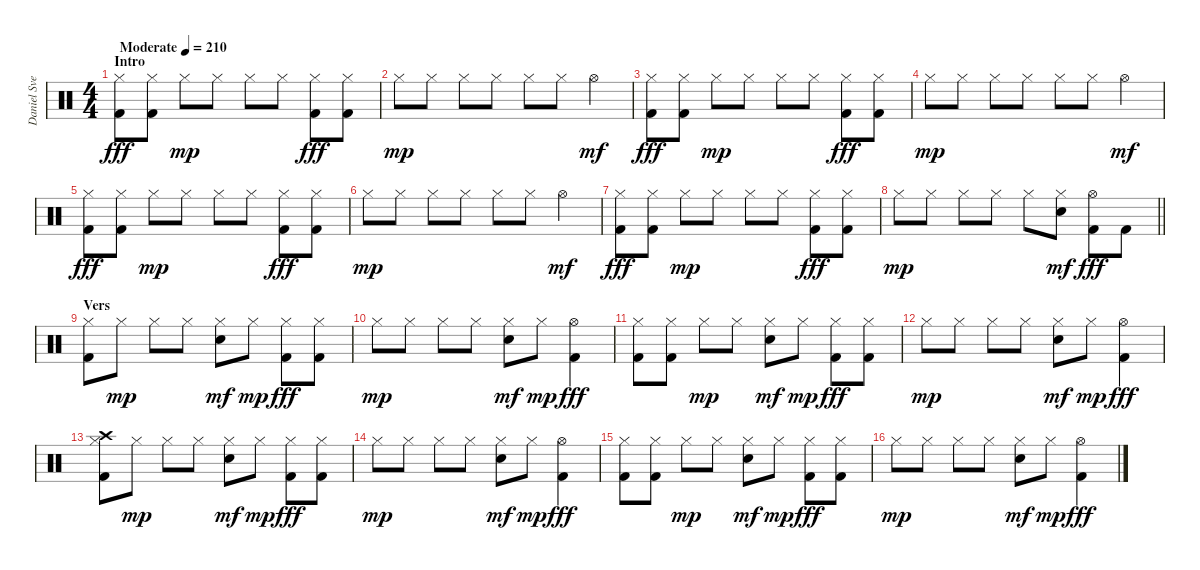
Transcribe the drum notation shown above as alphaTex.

\track ("Daniel Svensson" "Daniel Sve") {instrument percussion}
\staff {score}
\articulation defaults
\ts (4 4)
\section ("" "Intro")
\tempo (210 "Moderate")
\clef neutral
\ks c
("Hi-Hat (closed)" "Kick (hit) 2").8{dy fff} ("Hi-Hat (closed)" "Kick (hit) 2").8 "Hi-Hat (closed)".8{dy mp} "Hi-Hat (closed)".8 "Hi-Hat (closed)".8 "Hi-Hat (closed)".8 ("Hi-Hat (closed)" "Kick (hit) 2").8{dy fff} ("Hi-Hat (closed)" "Kick (hit) 2").8 |
"Hi-Hat (closed)".8{dy mp} "Hi-Hat (closed)".8 "Hi-Hat (closed)".8 "Hi-Hat (closed)".8 "Hi-Hat (closed)".8 "Hi-Hat (closed)".8 "Hi-Hat (open)".4{dy mf} |
("Hi-Hat (closed)" "Kick (hit) 2").8{dy fff} ("Hi-Hat (closed)" "Kick (hit) 2").8 "Hi-Hat (closed)".8{dy mp} "Hi-Hat (closed)".8 "Hi-Hat (closed)".8 "Hi-Hat (closed)".8 ("Hi-Hat (closed)" "Kick (hit) 2").8{dy fff} ("Hi-Hat (closed)" "Kick (hit) 2").8 |
"Hi-Hat (closed)".8{dy mp} "Hi-Hat (closed)".8 "Hi-Hat (closed)".8 "Hi-Hat (closed)".8 "Hi-Hat (closed)".8 "Hi-Hat (closed)".8 "Hi-Hat (open)".4{dy mf} |
("Hi-Hat (closed)" "Kick (hit) 2").8{dy fff} ("Hi-Hat (closed)" "Kick (hit) 2").8 "Hi-Hat (closed)".8{dy mp} "Hi-Hat (closed)".8 "Hi-Hat (closed)".8 "Hi-Hat (closed)".8 ("Hi-Hat (closed)" "Kick (hit) 2").8{dy fff} ("Hi-Hat (closed)" "Kick (hit) 2").8 |
"Hi-Hat (closed)".8{dy mp} "Hi-Hat (closed)".8 "Hi-Hat (closed)".8 "Hi-Hat (closed)".8 "Hi-Hat (closed)".8 "Hi-Hat (closed)".8 "Hi-Hat (open)".4{dy mf} |
("Hi-Hat (closed)" "Kick (hit) 2").8{dy fff} ("Hi-Hat (closed)" "Kick (hit) 2").8 "Hi-Hat (closed)".8{dy mp} "Hi-Hat (closed)".8 "Hi-Hat (closed)".8 "Hi-Hat (closed)".8 ("Hi-Hat (closed)" "Kick (hit) 2").8{dy fff} ("Hi-Hat (closed)" "Kick (hit) 2").8 |
\barLineRight lightlight "Hi-Hat (closed)".8{dy mp} "Hi-Hat (closed)".8 "Hi-Hat (closed)".8 "Hi-Hat (closed)".8 "Hi-Hat (closed)".8
("Hi-Hat (closed)" "Electric Snare (hit)").8{dy mf} ("Hi-Hat (open)" "Kick (hit) 2").8{dy fff} "Kick (hit) 2".8 |
\section ("" "Vers")
("Hi-Hat (closed)" "Kick (hit) 2").8 "Hi-Hat (closed)".8{dy mp} "Hi-Hat (closed)".8 "Hi-Hat (closed)".8 ("Hi-Hat (closed)" "Electric Snare (hit)").8{dy mf} "Hi-Hat (closed)".8{dy mp} ("Hi-Hat (closed)" "Kick (hit) 2").8{dy fff} ("Hi-Hat (closed)" "Kick (hit) 2").8 |
"Hi-Hat (closed)".8{dy mp} "Hi-Hat (closed)".8 "Hi-Hat (closed)".8 "Hi-Hat (closed)".8 ("Hi-Hat (closed)" "Electric Snare (hit)").8{dy mf} "Hi-Hat (closed)".8{dy mp} ("Hi-Hat (open)" "Kick (hit) 2").4{dy fff} |
("Hi-Hat (closed)" "Kick (hit) 2").8 ("Hi-Hat (closed)" "Kick (hit) 2").8 "Hi-Hat (closed)".8{dy mp} "Hi-Hat (closed)".8 ("Hi-Hat (closed)" "Electric Snare (hit)").8{dy mf} "Hi-Hat (closed)".8{dy mp} ("Hi-Hat (closed)" "Kick (hit) 2").8{dy fff} ("Hi-Hat (closed)" "Kick (hit) 2").8 |
"Hi-Hat (closed)".8{dy mp} "Hi-Hat (closed)".8 "Hi-Hat (closed)".8 "Hi-Hat (closed)".8 ("Hi-Hat (closed)" "Electric Snare (hit)").8{dy mf} "Hi-Hat (closed)".8{dy mp} ("Hi-Hat (open)" "Kick (hit) 2").4{dy fff} |
("Crash high (hit)" "Hi-Hat (closed)" "Kick (hit) 2").8 "Hi-Hat (closed)".8{dy mp} "Hi-Hat (closed)".8 "Hi-Hat (closed)".8 ("Hi-Hat (closed)" "Electric Snare (hit)").8{dy mf} "Hi-Hat (closed)".8{dy mp} ("Hi-Hat (closed)" "Kick (hit) 2").8{dy fff} ("Hi-Hat (closed)" "Kick (hit) 2").8 |
"Hi-Hat (closed)".8{dy mp} "Hi-Hat (closed)".8 "Hi-Hat (closed)".8 "Hi-Hat (closed)".8 ("Hi-Hat (closed)" "Electric Snare (hit)").8{dy mf} "Hi-Hat (closed)".8{dy mp} ("Hi-Hat (open)" "Kick (hit) 2").4{dy fff} |
("Hi-Hat (closed)" "Kick (hit) 2").8 ("Hi-Hat (closed)" "Kick (hit) 2").8 "Hi-Hat (closed)".8{dy mp} "Hi-Hat (closed)".8 ("Hi-Hat (closed)" "Electric Snare (hit)").8{dy mf} "Hi-Hat (closed)".8{dy mp} ("Hi-Hat (closed)" "Kick (hit) 2").8{dy fff} ("Hi-Hat (closed)" "Kick (hit) 2").8 |
"Hi-Hat (closed)".8{dy mp} "Hi-Hat (closed)".8 "Hi-Hat (closed)".8 "Hi-Hat (closed)".8 ("Hi-Hat (closed)" "Electric Snare (hit)").8{dy mf} "Hi-Hat (closed)".8{dy mp} ("Hi-Hat (open)" "Kick (hit) 2").4{dy fff}
